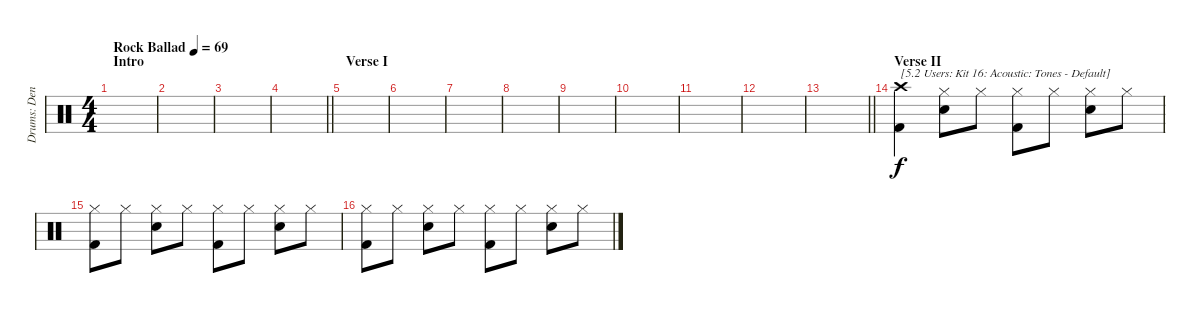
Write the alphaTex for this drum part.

\track ("Drums: Denny" "Drums: Den") {instrument percussion}
\staff {score}
\articulation defaults
\ts (4 4)
\section ("" "Intro")
\tempo (69 "Rock Ballad")
\clef neutral
\ks c
|
|
|
\barLineRight lightlight
|
\section ("" "Verse I")
|
|
|
|
|
|
|
|
\barLineRight lightlight
|
\section ("" "Verse II")
("Crash high (hit)" "Kick (hit) 2").4{txt "[5.2 Users: Kit 16: Acoustic: Tones - Default]"} ("Hi-Hat (closed)" "Snare (hit) 2").8 "Hi-Hat (closed)".8 ("Hi-Hat (closed)" "Kick (hit) 2").8 "Hi-Hat (closed)".8 ("Hi-Hat (closed)" "Snare (hit) 2").8 "Hi-Hat (closed)".8 |
("Hi-Hat (closed)" "Kick (hit) 2").8 "Hi-Hat (closed)".8 ("Hi-Hat (closed)" "Snare (hit) 2").8 "Hi-Hat (closed)".8 ("Hi-Hat (closed)" "Kick (hit) 2").8 "Hi-Hat (closed)".8 ("Hi-Hat (closed)" "Snare (hit) 2").8 "Hi-Hat (closed)".8 |
("Hi-Hat (closed)" "Kick (hit) 2").8 "Hi-Hat (closed)".8 ("Hi-Hat (closed)" "Snare (hit) 2").8 "Hi-Hat (closed)".8 ("Hi-Hat (closed)" "Kick (hit) 2").8 "Hi-Hat (closed)".8 ("Hi-Hat (closed)" "Snare (hit) 2").8 "Hi-Hat (closed)".8
